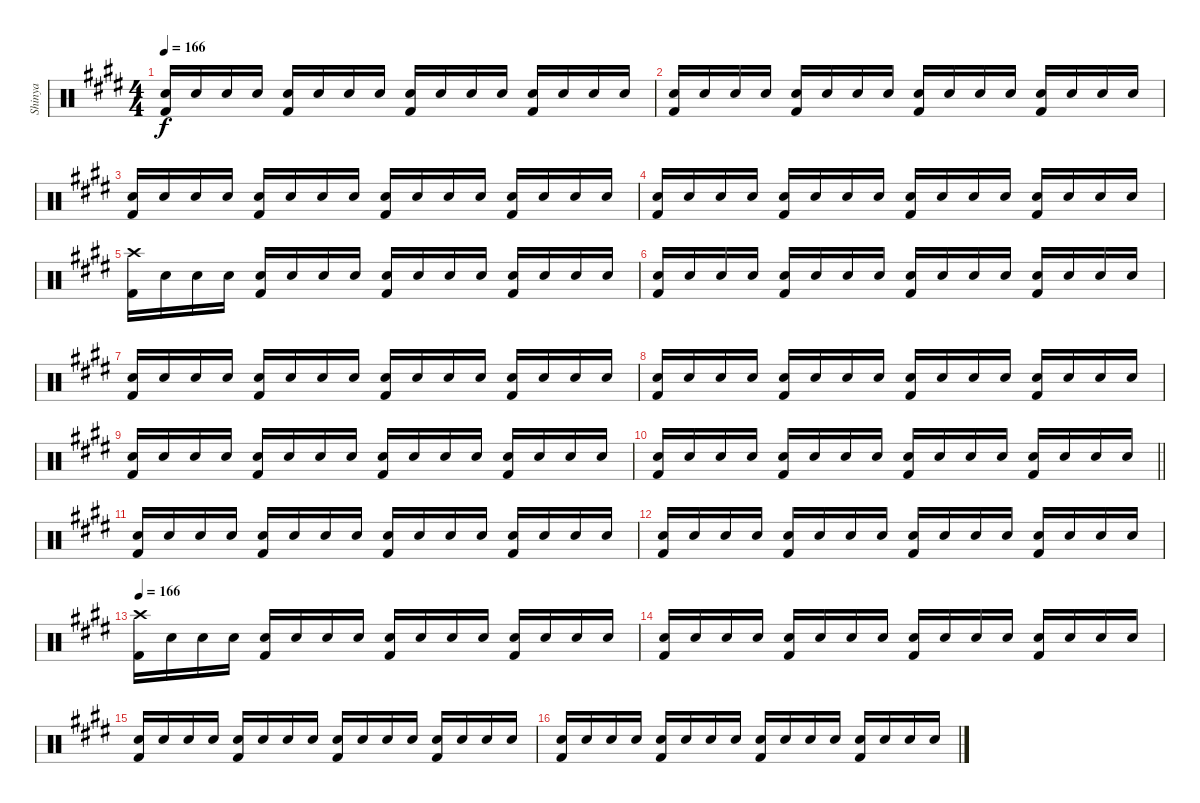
\track ("Shinya" "Shinya") {instrument percussion}
\staff {score}
\articulation defaults
\ts (4 4)
\tempo 166
\clef neutral
\ks e
("Snare (hit) 2" "Kick (hit) 2").16{dy f} "Snare (hit) 2".16 "Snare (hit) 2".16 "Snare (hit) 2".16 ("Snare (hit) 2" "Kick (hit) 2").16 "Snare (hit) 2".16 "Snare (hit) 2".16 "Snare (hit) 2".16 ("Snare (hit) 2" "Kick (hit) 2").16 "Snare (hit) 2".16 "Snare (hit) 2".16 "Snare (hit) 2".16 ("Snare (hit) 2" "Kick (hit) 2").16 "Snare (hit) 2".16 "Snare (hit) 2".16 "Snare (hit) 2".16 |
("Snare (hit) 2" "Kick (hit) 2").16 "Snare (hit) 2".16 "Snare (hit) 2".16 "Snare (hit) 2".16 ("Snare (hit) 2" "Kick (hit) 2").16 "Snare (hit) 2".16 "Snare (hit) 2".16 "Snare (hit) 2".16 ("Snare (hit) 2" "Kick (hit) 2").16 "Snare (hit) 2".16 "Snare (hit) 2".16 "Snare (hit) 2".16 ("Snare (hit) 2" "Kick (hit) 2").16 "Snare (hit) 2".16 "Snare (hit) 2".16 "Snare (hit) 2".16 |
("Snare (hit) 2" "Kick (hit) 2").16 "Snare (hit) 2".16 "Snare (hit) 2".16 "Snare (hit) 2".16 ("Snare (hit) 2" "Kick (hit) 2").16 "Snare (hit) 2".16 "Snare (hit) 2".16 "Snare (hit) 2".16 ("Snare (hit) 2" "Kick (hit) 2").16 "Snare (hit) 2".16 "Snare (hit) 2".16 "Snare (hit) 2".16 ("Snare (hit) 2" "Kick (hit) 2").16 "Snare (hit) 2".16 "Snare (hit) 2".16 "Snare (hit) 2".16 |
("Snare (hit) 2" "Kick (hit) 2").16 "Snare (hit) 2".16 "Snare (hit) 2".16 "Snare (hit) 2".16 ("Snare (hit) 2" "Kick (hit) 2").16 "Snare (hit) 2".16 "Snare (hit) 2".16 "Snare (hit) 2".16 ("Snare (hit) 2" "Kick (hit) 2").16 "Snare (hit) 2".16 "Snare (hit) 2".16 "Snare (hit) 2".16 ("Snare (hit) 2" "Kick (hit) 2").16 "Snare (hit) 2".16 "Snare (hit) 2".16 "Snare (hit) 2".16 |
("Crash high (hit)" "Kick (hit) 2").16 "Snare (hit) 2".16 "Snare (hit) 2".16 "Snare (hit) 2".16 ("Snare (hit) 2" "Kick (hit) 2").16 "Snare (hit) 2".16 "Snare (hit) 2".16 "Snare (hit) 2".16 ("Snare (hit) 2" "Kick (hit) 2").16 "Snare (hit) 2".16 "Snare (hit) 2".16 "Snare (hit) 2".16 ("Snare (hit) 2" "Kick (hit) 2").16 "Snare (hit) 2".16 "Snare (hit) 2".16 "Snare (hit) 2".16 |
("Snare (hit) 2" "Kick (hit) 2").16 "Snare (hit) 2".16 "Snare (hit) 2".16 "Snare (hit) 2".16 ("Snare (hit) 2" "Kick (hit) 2").16 "Snare (hit) 2".16 "Snare (hit) 2".16 "Snare (hit) 2".16 ("Snare (hit) 2" "Kick (hit) 2").16 "Snare (hit) 2".16 "Snare (hit) 2".16 "Snare (hit) 2".16 ("Snare (hit) 2" "Kick (hit) 2").16 "Snare (hit) 2".16 "Snare (hit) 2".16 "Snare (hit) 2".16 |
("Snare (hit) 2" "Kick (hit) 2").16 "Snare (hit) 2".16 "Snare (hit) 2".16 "Snare (hit) 2".16 ("Snare (hit) 2" "Kick (hit) 2").16 "Snare (hit) 2".16 "Snare (hit) 2".16 "Snare (hit) 2".16 ("Snare (hit) 2" "Kick (hit) 2").16 "Snare (hit) 2".16 "Snare (hit) 2".16 "Snare (hit) 2".16 ("Snare (hit) 2" "Kick (hit) 2").16 "Snare (hit) 2".16 "Snare (hit) 2".16 "Snare (hit) 2".16 |
("Snare (hit) 2" "Kick (hit) 2").16 "Snare (hit) 2".16 "Snare (hit) 2".16 "Snare (hit) 2".16 ("Snare (hit) 2" "Kick (hit) 2").16 "Snare (hit) 2".16 "Snare (hit) 2".16 "Snare (hit) 2".16 ("Snare (hit) 2" "Kick (hit) 2").16 "Snare (hit) 2".16 "Snare (hit) 2".16 "Snare (hit) 2".16 ("Snare (hit) 2" "Kick (hit) 2").16 "Snare (hit) 2".16 "Snare (hit) 2".16 "Snare (hit) 2".16 |
("Snare (hit) 2" "Kick (hit) 2").16 "Snare (hit) 2".16 "Snare (hit) 2".16 "Snare (hit) 2".16 ("Snare (hit) 2" "Kick (hit) 2").16 "Snare (hit) 2".16 "Snare (hit) 2".16 "Snare (hit) 2".16 ("Snare (hit) 2" "Kick (hit) 2").16 "Snare (hit) 2".16 "Snare (hit) 2".16 "Snare (hit) 2".16 ("Snare (hit) 2" "Kick (hit) 2").16 "Snare (hit) 2".16 "Snare (hit) 2".16 "Snare (hit) 2".16 |
\barLineRight lightlight
("Snare (hit) 2" "Kick (hit) 2").16 "Snare (hit) 2".16 "Snare (hit) 2".16 "Snare (hit) 2".16 ("Snare (hit) 2" "Kick (hit) 2").16 "Snare (hit) 2".16 "Snare (hit) 2".16 "Snare (hit) 2".16 ("Snare (hit) 2" "Kick (hit) 2").16 "Snare (hit) 2".16 "Snare (hit) 2".16 "Snare (hit) 2".16 ("Snare (hit) 2" "Kick (hit) 2").16 "Snare (hit) 2".16 "Snare (hit) 2".16 "Snare (hit) 2".16 |
("Snare (hit) 2" "Kick (hit) 2").16 "Snare (hit) 2".16 "Snare (hit) 2".16 "Snare (hit) 2".16 ("Snare (hit) 2" "Kick (hit) 2").16 "Snare (hit) 2".16 "Snare (hit) 2".16 "Snare (hit) 2".16 ("Snare (hit) 2" "Kick (hit) 2").16 "Snare (hit) 2".16 "Snare (hit) 2".16 "Snare (hit) 2".16 ("Snare (hit) 2" "Kick (hit) 2").16 "Snare (hit) 2".16 "Snare (hit) 2".16 "Snare (hit) 2".16 |
("Snare (hit) 2" "Kick (hit) 2").16 "Snare (hit) 2".16 "Snare (hit) 2".16 "Snare (hit) 2".16 ("Snare (hit) 2" "Kick (hit) 2").16 "Snare (hit) 2".16 "Snare (hit) 2".16 "Snare (hit) 2".16 ("Snare (hit) 2" "Kick (hit) 2").16 "Snare (hit) 2".16 "Snare (hit) 2".16 "Snare (hit) 2".16 ("Snare (hit) 2" "Kick (hit) 2").16 "Snare (hit) 2".16 "Snare (hit) 2".16 "Snare (hit) 2".16 |
\tempo 166
("Crash high (hit)" "Kick (hit) 2").16 "Snare (hit) 2".16 "Snare (hit) 2".16 "Snare (hit) 2".16 ("Snare (hit) 2" "Kick (hit) 2").16 "Snare (hit) 2".16 "Snare (hit) 2".16 "Snare (hit) 2".16 ("Snare (hit) 2" "Kick (hit) 2").16 "Snare (hit) 2".16 "Snare (hit) 2".16 "Snare (hit) 2".16 ("Snare (hit) 2" "Kick (hit) 2").16 "Snare (hit) 2".16 "Snare (hit) 2".16 "Snare (hit) 2".16 |
("Snare (hit) 2" "Kick (hit) 2").16 "Snare (hit) 2".16 "Snare (hit) 2".16 "Snare (hit) 2".16 ("Snare (hit) 2" "Kick (hit) 2").16 "Snare (hit) 2".16 "Snare (hit) 2".16 "Snare (hit) 2".16 ("Snare (hit) 2" "Kick (hit) 2").16 "Snare (hit) 2".16 "Snare (hit) 2".16 "Snare (hit) 2".16 ("Snare (hit) 2" "Kick (hit) 2").16 "Snare (hit) 2".16 "Snare (hit) 2".16 "Snare (hit) 2".16 |
("Snare (hit) 2" "Kick (hit) 2").16 "Snare (hit) 2".16 "Snare (hit) 2".16 "Snare (hit) 2".16 ("Snare (hit) 2" "Kick (hit) 2").16 "Snare (hit) 2".16 "Snare (hit) 2".16 "Snare (hit) 2".16 ("Snare (hit) 2" "Kick (hit) 2").16 "Snare (hit) 2".16 "Snare (hit) 2".16 "Snare (hit) 2".16 ("Snare (hit) 2" "Kick (hit) 2").16 "Snare (hit) 2".16 "Snare (hit) 2".16 "Snare (hit) 2".16 |
("Snare (hit) 2" "Kick (hit) 2").16 "Snare (hit) 2".16 "Snare (hit) 2".16 "Snare (hit) 2".16 ("Snare (hit) 2" "Kick (hit) 2").16 "Snare (hit) 2".16 "Snare (hit) 2".16 "Snare (hit) 2".16 ("Snare (hit) 2" "Kick (hit) 2").16 "Snare (hit) 2".16 "Snare (hit) 2".16 "Snare (hit) 2".16 ("Snare (hit) 2" "Kick (hit) 2").16 "Snare (hit) 2".16 "Snare (hit) 2".16 "Snare (hit) 2".16
